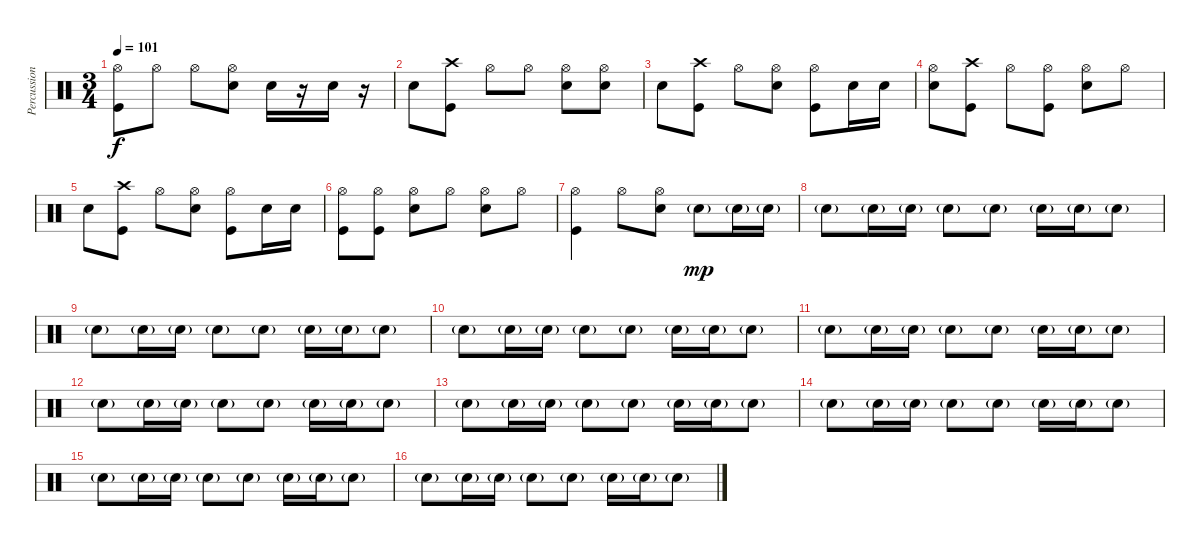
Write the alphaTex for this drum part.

\track ("Percussion" "Percussion") {instrument percussion}
\staff {score}
\articulation defaults
\ts (3 4)
\tempo 101
\clef neutral
\ks c
("Hi-Hat (open)" "Kick (hit)").8{dy f} "Hi-Hat (open)".8 "Hi-Hat (open)".8 ("Hi-Hat (open)" "Snare (hit) 2").8 "Snare (hit) 2".16 r.16 "Snare (hit) 2".16 r.16 |
"Snare (hit) 2".8 ("Crash high (hit)" "Kick (hit)").8 "Hi-Hat (open)".8 "Hi-Hat (open)".8 ("Hi-Hat (open)" "Snare (hit) 2").8 ("Hi-Hat (open)" "Snare (hit) 2").8 |
"Snare (hit) 2".8 ("Crash high (hit)" "Kick (hit)").8 "Hi-Hat (open)".8 ("Hi-Hat (open)" "Snare (hit) 2").8 ("Hi-Hat (open)" "Kick (hit)").8 "Snare (hit) 2".16 "Snare (hit) 2".16 |
("Hi-Hat (open)" "Snare (hit) 2").8 ("Crash high (hit)" "Kick (hit)").8 "Hi-Hat (open)".8 ("Hi-Hat (open)" "Kick (hit)").8 ("Hi-Hat (open)" "Snare (hit) 2").8 "Hi-Hat (open)".8 |
"Snare (hit) 2".8 ("Crash high (hit)" "Kick (hit)").8 "Hi-Hat (open)".8 ("Hi-Hat (open)" "Snare (hit) 2").8 ("Hi-Hat (open)" "Kick (hit)").8 "Snare (hit) 2".16 "Snare (hit) 2".16 |
("Hi-Hat (open)" "Kick (hit)").8 ("Hi-Hat (open)" "Kick (hit)").8 ("Hi-Hat (open)" "Snare (hit) 2").8 "Hi-Hat (open)".8 ("Hi-Hat (open)" "Snare (hit) 2").8 "Hi-Hat (open)".8 |
("Hi-Hat (open)" "Kick (hit)").4 "Hi-Hat (open)".8 ("Hi-Hat (open)" "Snare (hit) 2").8 "Snare (hit) 2"{g}.8{dy mp} "Snare (hit) 2"{g}.16 "Snare (hit) 2"{g}.16 |
"Snare (hit) 2"{g}.8 "Snare (hit) 2"{g}.16 "Snare (hit) 2"{g}.16 "Snare (hit) 2"{g}.8 "Snare (hit) 2"{g}.8 "Snare (hit) 2"{g}.16 "Snare (hit) 2"{g}.16 "Snare (hit) 2"{g}.8 |
"Snare (hit) 2"{g}.8 "Snare (hit) 2"{g}.16 "Snare (hit) 2"{g}.16 "Snare (hit) 2"{g}.8 "Snare (hit) 2"{g}.8 "Snare (hit) 2"{g}.16 "Snare (hit) 2"{g}.16 "Snare (hit) 2"{g}.8 |
"Snare (hit) 2"{g}.8 "Snare (hit) 2"{g}.16 "Snare (hit) 2"{g}.16 "Snare (hit) 2"{g}.8 "Snare (hit) 2"{g}.8 "Snare (hit) 2"{g}.16 "Snare (hit) 2"{g}.16 "Snare (hit) 2"{g}.8 |
"Snare (hit) 2"{g}.8 "Snare (hit) 2"{g}.16 "Snare (hit) 2"{g}.16 "Snare (hit) 2"{g}.8 "Snare (hit) 2"{g}.8 "Snare (hit) 2"{g}.16 "Snare (hit) 2"{g}.16 "Snare (hit) 2"{g}.8 |
"Snare (hit) 2"{g}.8 "Snare (hit) 2"{g}.16 "Snare (hit) 2"{g}.16 "Snare (hit) 2"{g}.8 "Snare (hit) 2"{g}.8 "Snare (hit) 2"{g}.16 "Snare (hit) 2"{g}.16 "Snare (hit) 2"{g}.8 |
"Snare (hit) 2"{g}.8 "Snare (hit) 2"{g}.16 "Snare (hit) 2"{g}.16 "Snare (hit) 2"{g}.8 "Snare (hit) 2"{g}.8 "Snare (hit) 2"{g}.16 "Snare (hit) 2"{g}.16 "Snare (hit) 2"{g}.8 |
"Snare (hit) 2"{g}.8 "Snare (hit) 2"{g}.16 "Snare (hit) 2"{g}.16 "Snare (hit) 2"{g}.8 "Snare (hit) 2"{g}.8 "Snare (hit) 2"{g}.16 "Snare (hit) 2"{g}.16 "Snare (hit) 2"{g}.8 |
"Snare (hit) 2"{g}.8 "Snare (hit) 2"{g}.16 "Snare (hit) 2"{g}.16 "Snare (hit) 2"{g}.8 "Snare (hit) 2"{g}.8 "Snare (hit) 2"{g}.16 "Snare (hit) 2"{g}.16 "Snare (hit) 2"{g}.8 |
"Snare (hit) 2"{g}.8 "Snare (hit) 2"{g}.16 "Snare (hit) 2"{g}.16 "Snare (hit) 2"{g}.8 "Snare (hit) 2"{g}.8 "Snare (hit) 2"{g}.16 "Snare (hit) 2"{g}.16 "Snare (hit) 2"{g}.8
